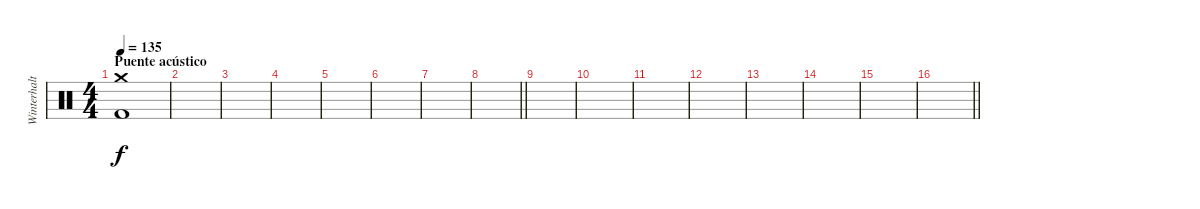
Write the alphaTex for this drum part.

\track ("Winterhalter" "Winterhalt") {instrument percussion}
\staff {score}
\articulation defaults
\ts (4 4)
\section ("" "Puente acústico")
\tempo 135
\clef neutral
\ks c
("Crash medium (hit)" "Kick (hit) 2").1{dy f} |
|
|
|
|
|
|
\barLineRight lightlight
|
|
|
|
|
|
|
|
\barLineRight lightlight
